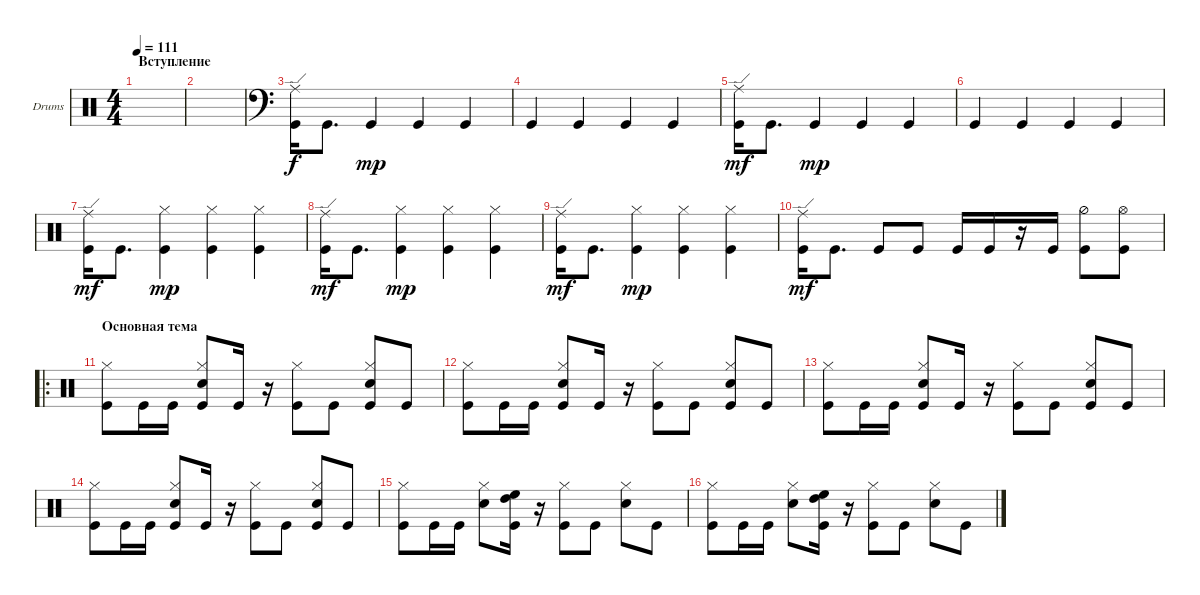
\defaultSystemsLayout 4
\bracketExtendMode groupsimilarinstruments
\firstSystemTrackNameOrientation horizontal
\otherSystemsTrackNameOrientation horizontal
\track ("Drumkit" "Drums") {instrument percussion}
\staff {score}
\articulation defaults
\ts (4 4)
\section ("" "Вступление")
\tempo 111
\clef neutral
\scale
0.472222
\ks c
|
\scale
0.263889 |
\clef f4
\scale
0.263889 ("Kick (hit)" "Ride (edge)").16 "Kick (hit)".8{d} "Kick (hit)".4{dy mp} "Kick (hit)".4 "Kick (hit)".4 |
\scale
0.333333 "Kick (hit)".4 "Kick (hit)".4 "Kick (hit)".4 "Kick (hit)".4 |
\scale
0.333333 ("Kick (hit)" "Ride (edge)").16{dy mf} "Kick (hit)".8{d} "Kick (hit)".4{dy mp} "Kick (hit)".4 "Kick (hit)".4 |
\scale
0.333333 "Kick (hit)".4 "Kick (hit)".4 "Kick (hit)".4 "Kick (hit)".4 |
\clef neutral
\scale
0.333333 ("Kick (hit)" "Ride (edge)").16{dy mf} "Kick (hit)".8{d} ("Kick (hit)" "Hi-Hat (closed)").4{dy mp} ("Kick (hit)" "Hi-Hat (closed)").4 ("Kick (hit)" "Hi-Hat (closed)").4 |
\scale
0.333333 ("Kick (hit)" "Ride (edge)").16{dy mf} "Kick (hit)".8{d} ("Kick (hit)" "Hi-Hat (closed)").4{dy mp} ("Kick (hit)" "Hi-Hat (closed)").4 ("Kick (hit)" "Hi-Hat (closed)").4 |
\scale
0.333333 ("Kick (hit)" "Ride (edge)").16{dy mf} "Kick (hit)".8{d} ("Kick (hit)" "Hi-Hat (closed)").4{dy mp} ("Kick (hit)" "Hi-Hat (closed)").4 ("Kick (hit)" "Hi-Hat (closed)").4 |
\scale
0.333333 ("Kick (hit)" "Ride (edge)").16{dy mf} "Kick (hit)".8{d} "Kick (hit)".8 "Kick (hit)".8 "Kick (hit)".16 "Kick (hit)".16 r.16 "Kick (hit)".16 ("Kick (hit)" "Hi-Hat (half)").8 ("Kick (hit)" "Hi-Hat (open)").8 |
\ro
\section ("" "Основная тема")
\scale
0.333333 ("Kick (hit)" "Hi-Hat (closed)").8 "Kick (hit)".16 "Kick (hit)".16 ("Kick (hit)" "Snare (hit) 2" "Hi-Hat (closed)").8 "Kick (hit)".16 r.16 ("Kick (hit)" "Hi-Hat (closed)").8 "Kick (hit)".8 ("Kick (hit)" "Snare (hit) 2" "Hi-Hat (closed)").8 "Kick (hit)".8 |
\scale
0.333333 ("Kick (hit)" "Hi-Hat (closed)").8 "Kick (hit)".16 "Kick (hit)".16 ("Kick (hit)" "Snare (hit) 2" "Hi-Hat (closed)").8 "Kick (hit)".16 r.16 ("Kick (hit)" "Hi-Hat (closed)").8 "Kick (hit)".8 ("Kick (hit)" "Snare (hit) 2" "Hi-Hat (closed)").8 "Kick (hit)".8 |
\scale
0.333333 ("Kick (hit)" "Hi-Hat (closed)").8 "Kick (hit)".16 "Kick (hit)".16 ("Kick (hit)" "Snare (hit) 2" "Hi-Hat (closed)").8 "Kick (hit)".16 r.16 ("Kick (hit)" "Hi-Hat (closed)").8 "Kick (hit)".8 ("Kick (hit)" "Snare (hit) 2" "Hi-Hat (closed)").8 "Kick (hit)".8 |
\scale
0.333333 ("Kick (hit)" "Hi-Hat (closed)").8 "Kick (hit)".16 "Kick (hit)".16 ("Kick (hit)" "Snare (hit) 2" "Hi-Hat (closed)").8 "Kick (hit)".16 r.16 ("Kick (hit)" "Hi-Hat (closed)").8 "Kick (hit)".8 ("Kick (hit)" "Snare (hit) 2" "Hi-Hat (closed)").8 "Kick (hit)".8 |
\scale
0.333333 ("Kick (hit)" "Hi-Hat (closed)").8 "Kick (hit)".16 "Kick (hit)".16 ("Snare (hit) 2" "Hi-Hat (closed)").8 ("Kick (hit)" "High Tom (hit)" "High Floor Tom (hit)").16 r.16 ("Kick (hit)" "Hi-Hat (closed)").8 "Kick (hit)".8 ("Hi-Hat (closed)" "Snare (hit) 2").8 "Kick (hit)".8 |
("Kick (hit)" "Hi-Hat (closed)").8 "Kick (hit)".16 "Kick (hit)".16 ("Snare (hit) 2" "Hi-Hat (closed)").8 ("Kick (hit)" "High Tom (hit)" "High Floor Tom (hit)").16 r.16 ("Kick (hit)" "Hi-Hat (closed)").8 "Kick (hit)".8 ("Hi-Hat (closed)" "Snare (hit) 2").8 "Kick (hit)".8
